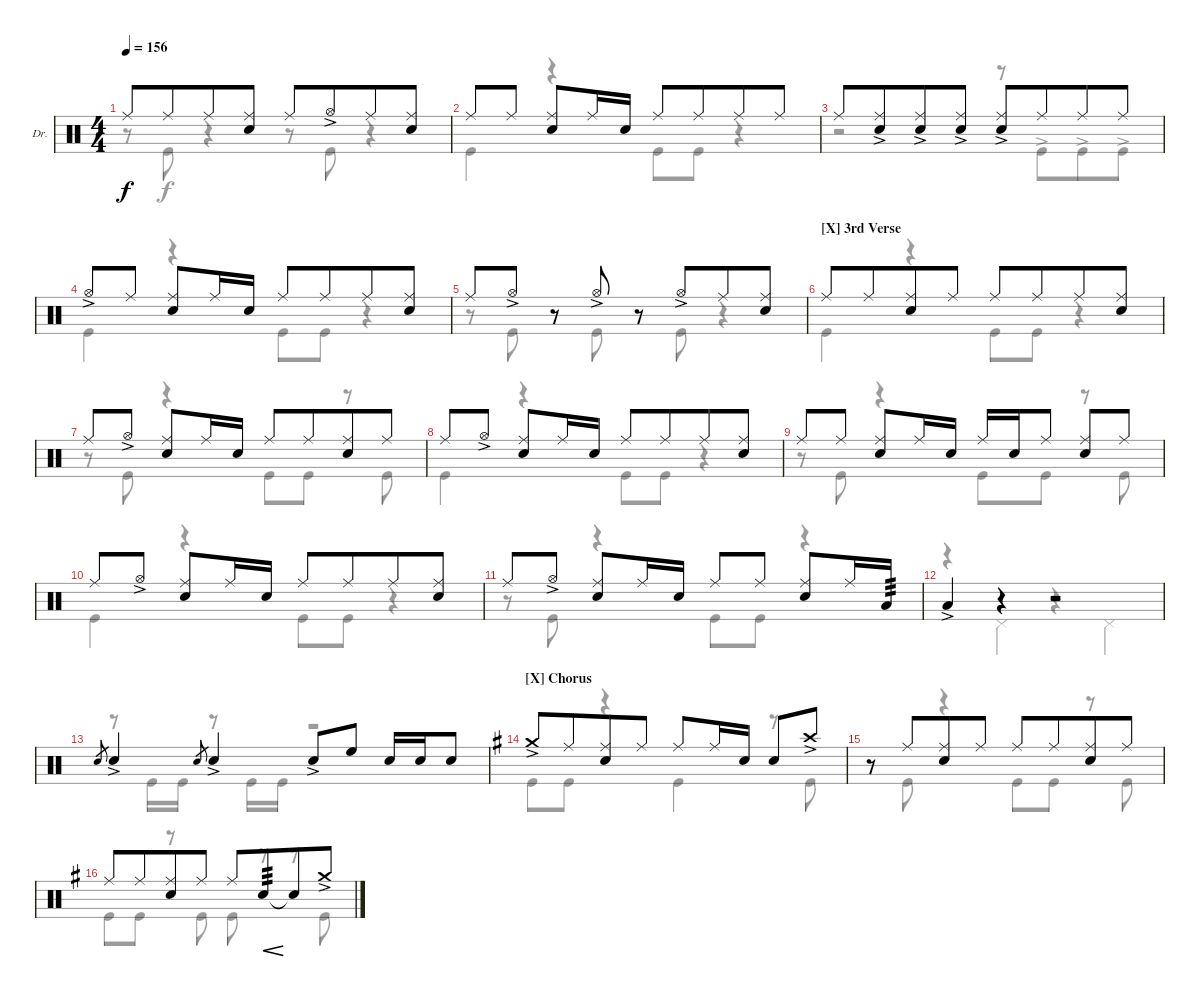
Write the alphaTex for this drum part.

\defaultSystemsLayout 4
\bracketExtendMode groupsimilarinstruments
\firstSystemTrackNameOrientation horizontal
\otherSystemsTrackNameOrientation horizontal
\track ("Drums" "Dr.") {instrument percussion}
\staff {score}
\articulation defaults
\voice
\ts (4 4)
\tempo 156
\clef neutral
\scale
0.368647
\ks c "Ride (middle)".8{dy f} "Ride (middle)".8{beam merge} "Ride (middle)".8
("Ride (middle)" "Snare (hit) 2").8 "Ride (middle)".8 "Hi-Hat (open)"{ac}.8{beam merge} "Ride (middle)".8 ("Ride (middle)" "Snare (hit) 2").8 |
\scale
0.300771 "Ride (middle)".8 "Ride (middle)".8{beam split} ("Ride (middle)" "Snare (hit) 2").8 "Ride (middle)".16 "Snare (hit) 2".16 "Ride (middle)".8 "Ride (middle)".8{beam merge} "Ride (middle)".8 "Ride (middle)".8 |
\scale
0.33002 "Ride (middle)".8 ("Ride (middle)" "Snare (hit) 2"{ac}).8{beam merge} ("Ride (middle)" "Snare (hit) 2"{ac}).8 ("Ride (middle)" "Snare (hit) 2"{ac}).8 ("Ride (middle)" "Snare (hit) 2"{ac}).8 "Ride (middle)".8{beam merge} "Ride (middle)".8 "Ride (middle)".8 |
\scale
0.364576 "Hi-Hat (open)"{ac}.8 "Ride (middle)".8{beam split} ("Ride (middle)" "Snare (hit) 2").8 "Ride (middle)".16 "Snare (hit) 2".16 "Ride (middle)".8 "Ride (middle)".8{beam merge} "Ride (middle)".8 ("Ride (middle)" "Snare (hit) 2").8 |
\scale
0.332081 "Ride (middle)".8 "Hi-Hat (open)"{ac}.8 r.8 "Hi-Hat (open)"{ac}.8 r.8 "Hi-Hat (open)"{ac}.8{beam merge} "Ride (middle)".8 ("Ride (middle)" "Snare (hit) 2").8 |
\section ("X" "3rd Verse")
\scale
0.303108 "Ride (middle)".8 "Ride (middle)".8{beam merge} ("Ride (middle)" "Snare (hit) 2").8 "Ride (middle)".8 "Ride (middle)".8 "Ride (middle)".8{beam merge} "Ride (middle)".8 ("Ride (middle)" "Snare (hit) 2").8 |
"Ride (middle)".8 "Hi-Hat (open)"{ac}.8 ("Ride (middle)" "Snare (hit) 2").8 "Ride (middle)".16 "Snare (hit) 2".16 "Ride (middle)".8 "Ride (middle)".8{beam merge} ("Ride (middle)" "Snare (hit) 2").8 "Ride (middle)".8 |
"Ride (middle)".8 "Hi-Hat (open)"{ac}.8 ("Ride (middle)" "Snare (hit) 2").8 "Ride (middle)".16 "Snare (hit) 2".16 "Ride (middle)".8 "Ride (middle)".8{beam merge} "Ride (middle)".8 ("Ride (middle)" "Snare (hit) 2").8 |
"Ride (middle)".8 "Ride (middle)".8{beam split} ("Ride (middle)" "Snare (hit) 2").8 "Ride (middle)".16 "Snare (hit) 2".16 "Ride (middle)".16 "Snare (hit) 2".16 "Ride (middle)".8 ("Ride (middle)" "Snare (hit) 2").8 "Ride (middle)".8 |
\scale
0.351944 "Ride (middle)".8 "Hi-Hat (open)"{ac}.8 ("Ride (middle)" "Snare (hit) 2").8 "Ride (middle)".16 "Snare (hit) 2".16 "Ride (middle)".8 "Ride (middle)".8{beam merge} "Ride (middle)".8 ("Ride (middle)" "Snare (hit) 2").8 |
\scale
0.328109 "Ride (middle)".8 "Hi-Hat (open)"{ac}.8 ("Ride (middle)" "Snare (hit) 2").8 "Ride (middle)".16 "Snare (hit) 2".16 "Ride (middle)".8 "Ride (middle)".8{beam split} ("Ride (middle)" "Snare (hit) 2").8 "Ride (middle)".16 "Low Tom (hit)".16{tp 3} |
\scale
0.318894 "Low Tom (hit)"{ac}.4 r.4 r.2 |
\scale
0.41812 "Snare (hit) 2".8{gr} "Snare (hit) 2"{ac}.4 "Snare (hit) 2".8{gr} "Snare (hit) 2"{ac}.4 "Snare (hit) 2"{ac}.8 "High Floor Tom (hit)".8 "Snare (hit) 2".16 "Snare (hit) 2".16 "Snare (hit) 2".8 |
\section ("X" "Chorus")
\scale
0.297609
\ks g "Crash medium (hit)"{ac}.8 "Ride (middle)".8{beam merge}
("Ride (middle)" "Snare (hit) 2").8 "Ride (middle)".8 "Ride (middle)".8 "Ride (middle)".16 "Snare (hit) 2".16 "Snare (hit) 2".8 "Crash high (hit)"{ac}.8 |
\scale
0.28365 r.8 "Ride (middle)".8{beam merge} ("Ride (middle)" "Snare (hit) 2").8 "Ride (middle)".8 "Ride (middle)".8 "Ride (middle)".8{beam merge} ("Ride (middle)" "Snare (hit) 2").8 "Ride (middle)".8 |
\scale
0.347187 "Ride (middle)".8 "Ride (middle)".8{beam merge} ("Ride (middle)" "Snare (hit) 2").8 "Ride (middle)".8 "Ride (middle)".8 "Snare (hit) 2".8{tp 3 cre beam merge} "Snare (hit) 2"{t}.8 "Crash medium (hit)"{ac}.8
\voice
\clef neutral
\ottava regular
\simile none
\scale
0.368647
\ks c
r.8{dy f} "Kick (hit)".8 r.4 r.8 "Kick (hit)".8 r.4 |
\scale
0.300771 "Kick (hit)".4 r.4 "Kick (hit)".8 "Kick (hit)".8 r.4 |
\scale
0.33002 r.2 r.8 "Kick (hit)"{ac}.8{beam merge} "Kick (hit)"{ac}.8{beam merge} "Kick (hit)"{ac}.8 |
\scale
0.364576 "Kick (hit)".4 r.4 "Kick (hit)".8 "Kick (hit)".8 r.4 |
\scale
0.332081 r.8 "Kick (hit)".8 r.8 "Kick (hit)".8 r.8 "Kick (hit)".8 r.4 |
\scale
0.303108 "Kick (hit)".4 r.4 "Kick (hit)".8 "Kick (hit)".8 r.4 |
r.8 "Kick (hit)".8 r.4 "Kick (hit)".8 "Kick (hit)".8 r.8 "Kick (hit)".8 |
"Kick (hit)".4 r.4 "Kick (hit)".8 "Kick (hit)".8 r.4 |
r.8 "Kick (hit)".8 r.4 "Kick (hit)".8 "Kick (hit)".8 r.8 "Kick (hit)".8 |
\scale
0.351944 "Kick (hit)".4 r.4 "Kick (hit)".8 "Kick (hit)".8 r.4 |
\scale
0.328109 r.8 "Kick (hit)".8 r.4 "Kick (hit)".8 "Kick (hit)".8 r.4 |
\scale
0.318894 r.4 "Pedal Hi-Hat (hit)".4 r.4 "Pedal Hi-Hat (hit)".4 |
\scale
0.41812 r.8 "Kick (hit)".16 "Kick (hit)".16 r.8 "Kick (hit)".16 "Kick (hit)".16 r.2 |
\scale
0.297609
\ks g "Kick (hit)".8 "Kick (hit)".8
r.4 "Kick (hit)".4 r.8 "Kick (hit)".8 |
\scale
0.28365 r.8 "Kick (hit)".8 r.4 "Kick (hit)".8 "Kick (hit)".8 r.8 "Kick (hit)".8 |
\scale
0.347187 "Kick (hit)".8 "Kick (hit)".8 r.8 "Kick (hit)".8 "Kick (hit)".8 r.8 r.8 "Kick (hit)".8
